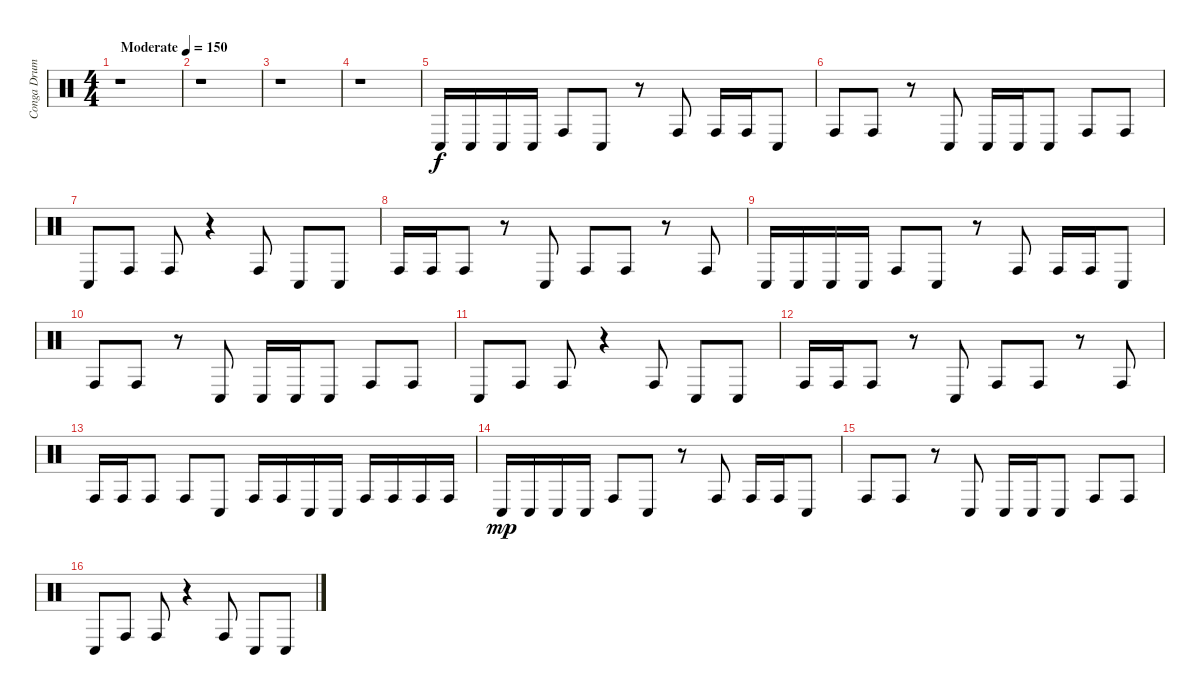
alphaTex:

\track ("Conga Drum" "Conga Drum") {instrument percussion}
\staff {score}
\articulation defaults
\ts (4 4)
\tempo (150 "Moderate")
\clef neutral
\ks c
r.1{dy f} |
r.1 |
r.1 |
r.1 |
"Conga low (hit)".16 "Conga low (hit)".16 "Conga low (hit)".16 "Conga low (hit)".16 "Conga high (hit)".8 "Conga low (hit)".8 r.8 "Conga high (hit)".8 "Conga high (hit)".16 "Conga high (hit)".16 "Conga low (hit)".8 |
"Conga high (hit)".8 "Conga high (hit)".8 r.8 "Conga low (hit)".8 "Conga low (hit)".16 "Conga low (hit)".16 "Conga low (hit)".8 "Conga high (hit)".8 "Conga high (hit)".8 |
"Conga low (hit)".8 "Conga high (hit)".8 "Conga high (hit)".8 r.4 "Conga high (hit)".8 "Conga low (hit)".8 "Conga low (hit)".8 |
"Conga high (hit)".16 "Conga high (hit)".16 "Conga high (hit)".8 r.8 "Conga low (hit)".8 "Conga high (hit)".8 "Conga high (hit)".8 r.8 "Conga high (hit)".8 |
"Conga low (hit)".16 "Conga low (hit)".16 "Conga low (hit)".16 "Conga low (hit)".16 "Conga high (hit)".8 "Conga low (hit)".8 r.8 "Conga high (hit)".8 "Conga high (hit)".16 "Conga high (hit)".16 "Conga low (hit)".8 |
"Conga high (hit)".8 "Conga high (hit)".8 r.8 "Conga low (hit)".8 "Conga low (hit)".16 "Conga low (hit)".16 "Conga low (hit)".8 "Conga high (hit)".8 "Conga high (hit)".8 |
"Conga low (hit)".8 "Conga high (hit)".8 "Conga high (hit)".8 r.4 "Conga high (hit)".8 "Conga low (hit)".8 "Conga low (hit)".8 |
"Conga high (hit)".16 "Conga high (hit)".16 "Conga high (hit)".8 r.8 "Conga low (hit)".8 "Conga high (hit)".8 "Conga high (hit)".8 r.8 "Conga high (hit)".8 |
"Conga high (hit)".16 "Conga high (hit)".16 "Conga high (hit)".8 "Conga high (hit)".8 "Conga low (hit)".8 "Conga high (hit)".16 "Conga high (hit)".16 "Conga low (hit)".16 "Conga low (hit)".16 "Conga high (hit)".16 "Conga high (hit)".16 "Conga high (hit)".16 "Conga high (hit)".16 |
"Conga low (hit)".16{dy mp} "Conga low (hit)".16 "Conga low (hit)".16 "Conga low (hit)".16 "Conga high (hit)".8 "Conga low (hit)".8 r.8 "Conga high (hit)".8 "Conga high (hit)".16 "Conga high (hit)".16 "Conga low (hit)".8 |
"Conga high (hit)".8 "Conga high (hit)".8 r.8 "Conga low (hit)".8 "Conga low (hit)".16 "Conga low (hit)".16 "Conga low (hit)".8 "Conga high (hit)".8 "Conga high (hit)".8 |
"Conga low (hit)".8 "Conga high (hit)".8 "Conga high (hit)".8 r.4 "Conga high (hit)".8 "Conga low (hit)".8 "Conga low (hit)".8
